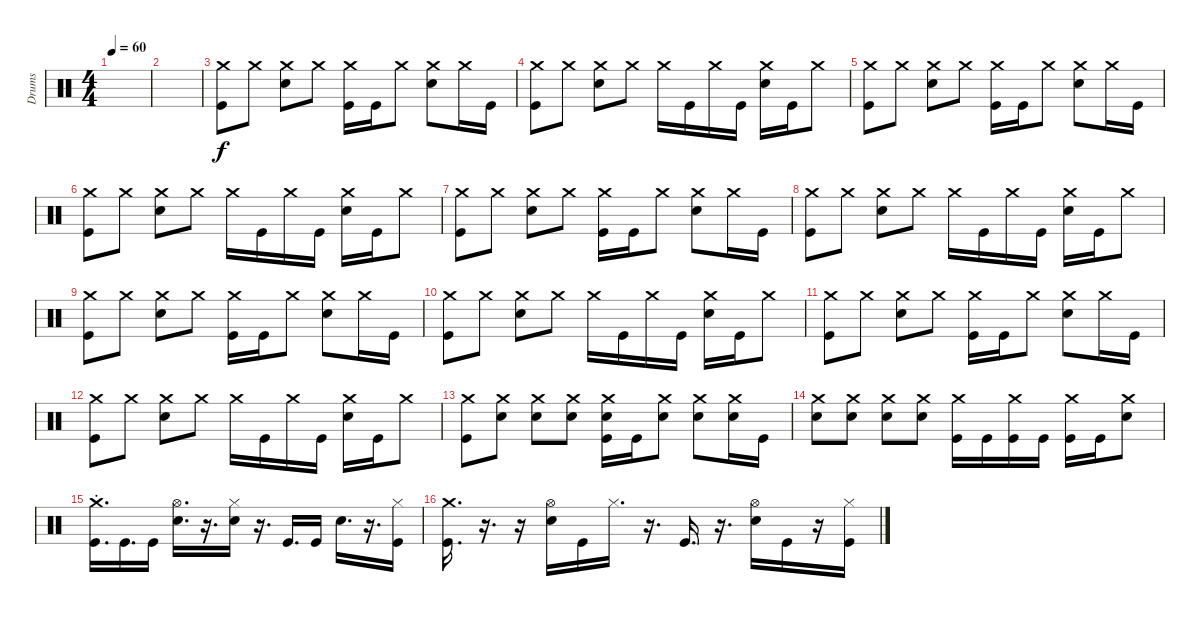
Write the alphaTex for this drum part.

\defaultSystemsLayout 4
\track ("Drums" "Drums") {instrument percussion}
\staff {score}
\articulation defaults
\ts (4 4)
\tempo 60
\clef neutral
\ks c
|
|
("Kick (hit)" "Crash medium (hit)").8 "Crash medium (hit)".8 ("Crash medium (hit)" "Snare (hit) 2").8 "Crash medium (hit)".8 ("Kick (hit)" "Crash medium (hit)").16 "Kick (hit)".16 "Crash medium (hit)".8 ("Crash medium (hit)" "Snare (hit) 2").8 "Crash medium (hit)".16 "Kick (hit)".16 |
("Kick (hit)" "Crash medium (hit)").8 "Crash medium (hit)".8 ("Crash medium (hit)" "Snare (hit) 2").8 "Crash medium (hit)".8 "Crash medium (hit)".16 "Kick (hit)".16 "Crash medium (hit)".16 "Kick (hit)".16 ("Snare (hit) 2" "Crash medium (hit)").16 "Kick (hit)".16 "Crash medium (hit)".8 |
("Kick (hit)" "Crash medium (hit)").8 "Crash medium (hit)".8 ("Crash medium (hit)" "Snare (hit) 2").8 "Crash medium (hit)".8 ("Kick (hit)" "Crash medium (hit)").16 "Kick (hit)".16 "Crash medium (hit)".8 ("Crash medium (hit)" "Snare (hit) 2").8 "Crash medium (hit)".16 "Kick (hit)".16 |
("Kick (hit)" "Crash medium (hit)").8 "Crash medium (hit)".8 ("Crash medium (hit)" "Snare (hit) 2").8 "Crash medium (hit)".8 "Crash medium (hit)".16 "Kick (hit)".16 "Crash medium (hit)".16 "Kick (hit)".16 ("Snare (hit) 2" "Crash medium (hit)").16 "Kick (hit)".16 "Crash medium (hit)".8 |
("Kick (hit)" "Crash medium (hit)").8 "Crash medium (hit)".8 ("Crash medium (hit)" "Snare (hit) 2").8 "Crash medium (hit)".8 ("Kick (hit)" "Crash medium (hit)").16 "Kick (hit)".16 "Crash medium (hit)".8 ("Crash medium (hit)" "Snare (hit) 2").8 "Crash medium (hit)".16 "Kick (hit)".16 |
("Kick (hit)" "Crash medium (hit)").8 "Crash medium (hit)".8 ("Crash medium (hit)" "Snare (hit) 2").8 "Crash medium (hit)".8 "Crash medium (hit)".16 "Kick (hit)".16 "Crash medium (hit)".16 "Kick (hit)".16 ("Snare (hit) 2" "Crash medium (hit)").16 "Kick (hit)".16 "Crash medium (hit)".8 |
("Kick (hit)" "Crash medium (hit)").8 "Crash medium (hit)".8 ("Crash medium (hit)" "Snare (hit) 2").8 "Crash medium (hit)".8 ("Kick (hit)" "Crash medium (hit)").16 "Kick (hit)".16 "Crash medium (hit)".8 ("Crash medium (hit)" "Snare (hit) 2").8 "Crash medium (hit)".16 "Kick (hit)".16 |
("Kick (hit)" "Crash medium (hit)").8 "Crash medium (hit)".8 ("Crash medium (hit)" "Snare (hit) 2").8 "Crash medium (hit)".8 "Crash medium (hit)".16 "Kick (hit)".16 "Crash medium (hit)".16 "Kick (hit)".16 ("Snare (hit) 2" "Crash medium (hit)").16 "Kick (hit)".16 "Crash medium (hit)".8 |
("Kick (hit)" "Crash medium (hit)").8 "Crash medium (hit)".8 ("Crash medium (hit)" "Snare (hit) 2").8 "Crash medium (hit)".8 ("Crash medium (hit)" "Kick (hit)").16 "Kick (hit)".16 "Crash medium (hit)".8 ("Crash medium (hit)" "Snare (hit) 2").8 "Crash medium (hit)".16 "Kick (hit)".16 |
("Kick (hit)" "Crash medium (hit)").8 "Crash medium (hit)".8 ("Crash medium (hit)" "Snare (hit) 2").8 "Crash medium (hit)".8 "Crash medium (hit)".16 "Kick (hit)".16 "Crash medium (hit)".16 "Kick (hit)".16 ("Snare (hit) 2" "Crash medium (hit)").16 "Kick (hit)".16 "Crash medium (hit)".8 |
("Crash medium (hit)" "Kick (hit)").8 ("Crash medium (hit)" "Snare (hit) 2").8 ("Crash medium (hit)" "Snare (hit) 2").8 ("Crash medium (hit)" "Snare (hit) 2").8 ("Snare (hit) 2" "Crash medium (hit)" "Kick (hit)").16 "Kick (hit)".16 ("Snare (hit) 2" "Crash medium (hit)").8 ("Crash medium (hit)" "Snare (hit) 2").8 ("Crash medium (hit)" "Snare (hit) 2").16 "Kick (hit)".16 |
("Crash medium (hit)" "Snare (hit) 2").8 ("Crash medium (hit)" "Snare (hit) 2").8 ("Crash medium (hit)" "Snare (hit) 2").8 ("Crash medium (hit)" "Snare (hit) 2").8 ("Crash medium (hit)" "Kick (hit)").16 "Kick (hit)".16 ("Crash medium (hit)" "Kick (hit)").16 "Kick (hit)".16 ("Kick (hit)" "Crash medium (hit)").16 "Kick (hit)".16 ("Snare (hit) 2" "Crash medium (hit)").8 |
("Kick (hit)"{st} "Crash medium (hit)").16{d} "Kick (hit)".16{d} "Kick (hit)".16 ("Hi-Hat (open)" "Snare (hit) 2").16{d} r.16{d} ("Snare (hit) 2" "Hi-Hat (closed)").16 r.16{d} "Kick (hit)".16{d} "Kick (hit)".16 "Snare (hit) 2".16{d} r.16{d} ("Hi-Hat (closed)" "Kick (hit)").16 |
("Kick (hit)" "Crash medium (hit)").16{d} r.16{d} r.16 ("Hi-Hat (open)" "Snare (hit) 2").16 "Kick (hit)".16 "Hi-Hat (closed)".16{d} r.16{d} "Kick (hit)".16{d} r.16{d} ("Snare (hit) 2" "Hi-Hat (open)").16 "Kick (hit)".16 r.16 ("Kick (hit)" "Hi-Hat (closed)").16
